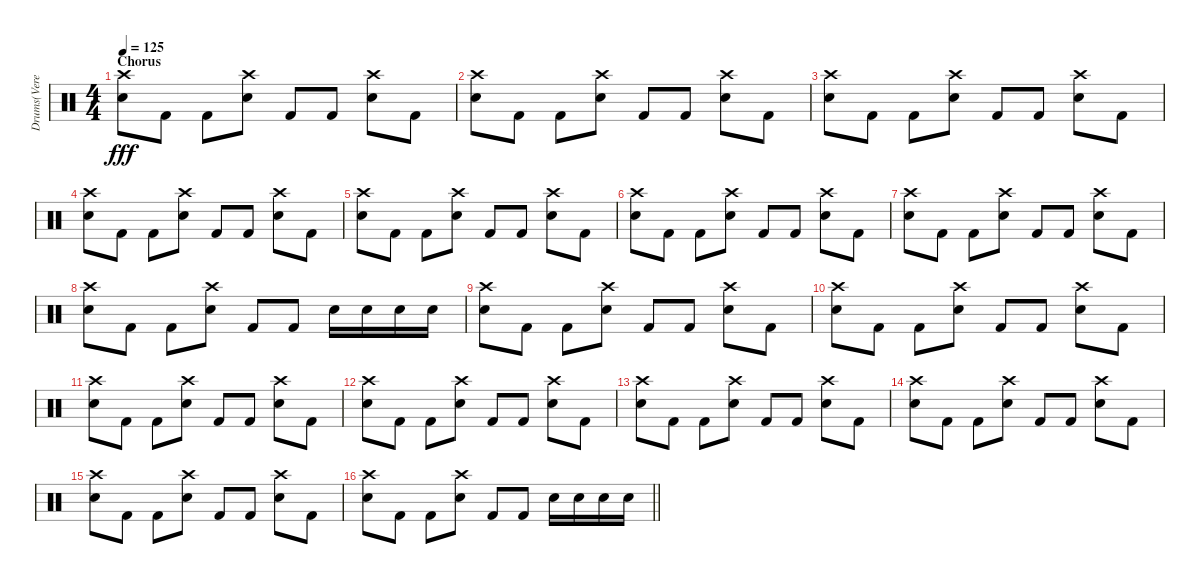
\track ("Drums(Vereinfacht) - Daniel" "Drums(Vere") {instrument percussion}
\staff {score}
\articulation defaults
\ts (4 4)
\section ("" "Chorus")
\tempo 125
\clef neutral
\ks c
("Snare (hit) 2" "Crash high (hit)").8{dy fff} "Kick (hit) 2".8 "Kick (hit) 2".8 ("Snare (hit) 2" "Crash high (hit)").8 "Kick (hit) 2".8 "Kick (hit) 2".8 ("Snare (hit) 2" "Crash high (hit)").8 "Kick (hit) 2".8 |
("Snare (hit) 2" "Crash high (hit)").8 "Kick (hit) 2".8 "Kick (hit) 2".8 ("Snare (hit) 2" "Crash high (hit)").8 "Kick (hit) 2".8 "Kick (hit) 2".8 ("Snare (hit) 2" "Crash high (hit)").8 "Kick (hit) 2".8 |
("Snare (hit) 2" "Crash high (hit)").8 "Kick (hit) 2".8 "Kick (hit) 2".8 ("Snare (hit) 2" "Crash high (hit)").8 "Kick (hit) 2".8 "Kick (hit) 2".8 ("Snare (hit) 2" "Crash high (hit)").8 "Kick (hit) 2".8 |
("Snare (hit) 2" "Crash high (hit)").8 "Kick (hit) 2".8 "Kick (hit) 2".8 ("Snare (hit) 2" "Crash high (hit)").8 "Kick (hit) 2".8 "Kick (hit) 2".8 ("Snare (hit) 2" "Crash high (hit)").8 "Kick (hit) 2".8 |
("Snare (hit) 2" "Crash high (hit)").8 "Kick (hit) 2".8 "Kick (hit) 2".8 ("Snare (hit) 2" "Crash high (hit)").8 "Kick (hit) 2".8 "Kick (hit) 2".8 ("Snare (hit) 2" "Crash high (hit)").8 "Kick (hit) 2".8 |
("Snare (hit) 2" "Crash high (hit)").8 "Kick (hit) 2".8 "Kick (hit) 2".8 ("Snare (hit) 2" "Crash high (hit)").8 "Kick (hit) 2".8 "Kick (hit) 2".8 ("Snare (hit) 2" "Crash high (hit)").8 "Kick (hit) 2".8 |
("Snare (hit) 2" "Crash high (hit)").8 "Kick (hit) 2".8 "Kick (hit) 2".8 ("Snare (hit) 2" "Crash high (hit)").8 "Kick (hit) 2".8 "Kick (hit) 2".8 ("Snare (hit) 2" "Crash high (hit)").8 "Kick (hit) 2".8 |
("Snare (hit) 2" "Crash high (hit)").8 "Kick (hit) 2".8 "Kick (hit) 2".8 ("Snare (hit) 2" "Crash high (hit)").8 "Kick (hit) 2".8 "Kick (hit) 2".8 "Snare (hit) 2".16 "Snare (hit) 2".16 "Snare (hit) 2".16 "Snare (hit) 2".16 |
("Snare (hit) 2" "Crash high (hit)").8 "Kick (hit) 2".8 "Kick (hit) 2".8 ("Snare (hit) 2" "Crash high (hit)").8 "Kick (hit) 2".8 "Kick (hit) 2".8 ("Snare (hit) 2" "Crash high (hit)").8 "Kick (hit) 2".8 |
("Snare (hit) 2" "Crash high (hit)").8 "Kick (hit) 2".8 "Kick (hit) 2".8 ("Snare (hit) 2" "Crash high (hit)").8 "Kick (hit) 2".8 "Kick (hit) 2".8 ("Snare (hit) 2" "Crash high (hit)").8 "Kick (hit) 2".8 |
("Snare (hit) 2" "Crash high (hit)").8 "Kick (hit) 2".8 "Kick (hit) 2".8 ("Snare (hit) 2" "Crash high (hit)").8 "Kick (hit) 2".8 "Kick (hit) 2".8 ("Snare (hit) 2" "Crash high (hit)").8 "Kick (hit) 2".8 |
("Snare (hit) 2" "Crash high (hit)").8 "Kick (hit) 2".8 "Kick (hit) 2".8 ("Snare (hit) 2" "Crash high (hit)").8 "Kick (hit) 2".8 "Kick (hit) 2".8 ("Snare (hit) 2" "Crash high (hit)").8 "Kick (hit) 2".8 |
("Snare (hit) 2" "Crash high (hit)").8 "Kick (hit) 2".8 "Kick (hit) 2".8 ("Snare (hit) 2" "Crash high (hit)").8 "Kick (hit) 2".8 "Kick (hit) 2".8 ("Snare (hit) 2" "Crash high (hit)").8 "Kick (hit) 2".8 |
("Snare (hit) 2" "Crash high (hit)").8 "Kick (hit) 2".8 "Kick (hit) 2".8 ("Snare (hit) 2" "Crash high (hit)").8 "Kick (hit) 2".8 "Kick (hit) 2".8 ("Snare (hit) 2" "Crash high (hit)").8 "Kick (hit) 2".8 |
("Snare (hit) 2" "Crash high (hit)").8 "Kick (hit) 2".8 "Kick (hit) 2".8 ("Snare (hit) 2" "Crash high (hit)").8 "Kick (hit) 2".8 "Kick (hit) 2".8 ("Snare (hit) 2" "Crash high (hit)").8 "Kick (hit) 2".8 |
\barLineRight lightlight
("Snare (hit) 2" "Crash high (hit)").8 "Kick (hit) 2".8 "Kick (hit) 2".8 ("Snare (hit) 2" "Crash high (hit)").8 "Kick (hit) 2".8 "Kick (hit) 2".8 "Snare (hit) 2".16 "Snare (hit) 2".16 "Snare (hit) 2".16 "Snare (hit) 2".16
